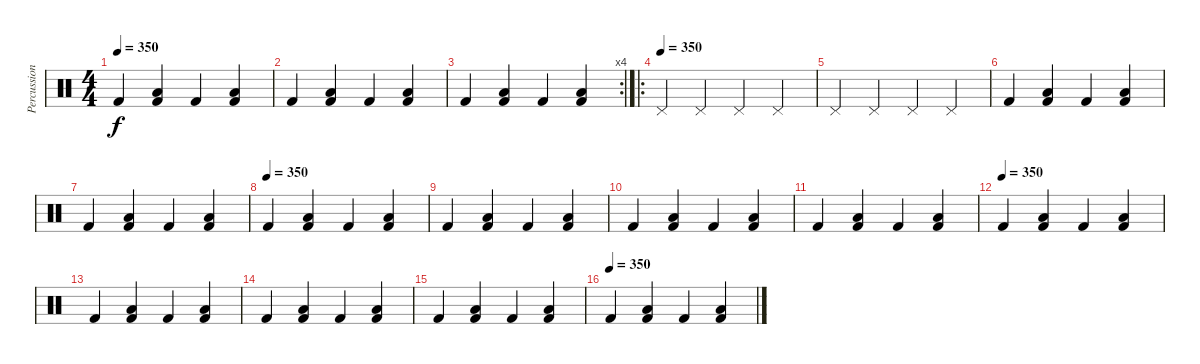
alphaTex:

\track ("Percussion" "Percussion") {instrument percussion}
\staff {score}
\articulation defaults
\ts (4 4)
\tempo 350
\clef neutral
\ks c "Kick (hit) 2".4{dy f}
("Low Tom (hit)" "Kick (hit) 2").4 "Kick (hit) 2".4 ("Low Tom (hit)" "Kick (hit) 2").4 |
"Kick (hit) 2".4 ("Low Tom (hit)" "Kick (hit) 2").4 "Kick (hit) 2".4 ("Low Tom (hit)" "Kick (hit) 2").4 |
\rc 4 "Kick (hit) 2".4
("Low Tom (hit)" "Kick (hit) 2").4 "Kick (hit) 2".4 ("Low Tom (hit)" "Kick (hit) 2").4 |
\ro
\tempo (350)
"Pedal Hi-Hat (hit)".4 "Pedal Hi-Hat (hit)".4 "Pedal Hi-Hat (hit)".4 "Pedal Hi-Hat (hit)".4 |
"Pedal Hi-Hat (hit)".4 "Pedal Hi-Hat (hit)".4 "Pedal Hi-Hat (hit)".4 "Pedal Hi-Hat (hit)".4 |
"Kick (hit) 2".4 ("Low Tom (hit)" "Kick (hit) 2").4 "Kick (hit) 2".4 ("Low Tom (hit)" "Kick (hit) 2").4 |
"Kick (hit) 2".4 ("Low Tom (hit)" "Kick (hit) 2").4 "Kick (hit) 2".4 ("Low Tom (hit)" "Kick (hit) 2").4 |
\tempo (350)
"Kick (hit) 2".4 ("Low Tom (hit)" "Kick (hit) 2").4 "Kick (hit) 2".4 ("Low Tom (hit)" "Kick (hit) 2").4 |
"Kick (hit) 2".4 ("Low Tom (hit)" "Kick (hit) 2").4 "Kick (hit) 2".4 ("Low Tom (hit)" "Kick (hit) 2").4 |
"Kick (hit) 2".4 ("Low Tom (hit)" "Kick (hit) 2").4 "Kick (hit) 2".4 ("Low Tom (hit)" "Kick (hit) 2").4 |
"Kick (hit) 2".4 ("Low Tom (hit)" "Kick (hit) 2").4 "Kick (hit) 2".4 ("Low Tom (hit)" "Kick (hit) 2").4 |
\tempo (350)
"Kick (hit) 2".4 ("Low Tom (hit)" "Kick (hit) 2").4 "Kick (hit) 2".4 ("Low Tom (hit)" "Kick (hit) 2").4 |
"Kick (hit) 2".4 ("Low Tom (hit)" "Kick (hit) 2").4 "Kick (hit) 2".4 ("Low Tom (hit)" "Kick (hit) 2").4 |
"Kick (hit) 2".4 ("Low Tom (hit)" "Kick (hit) 2").4 "Kick (hit) 2".4 ("Low Tom (hit)" "Kick (hit) 2").4 |
"Kick (hit) 2".4 ("Low Tom (hit)" "Kick (hit) 2").4 "Kick (hit) 2".4 ("Low Tom (hit)" "Kick (hit) 2").4 |
\tempo (350)
"Kick (hit) 2".4 ("Low Tom (hit)" "Kick (hit) 2").4 "Kick (hit) 2".4 ("Low Tom (hit)" "Kick (hit) 2").4
